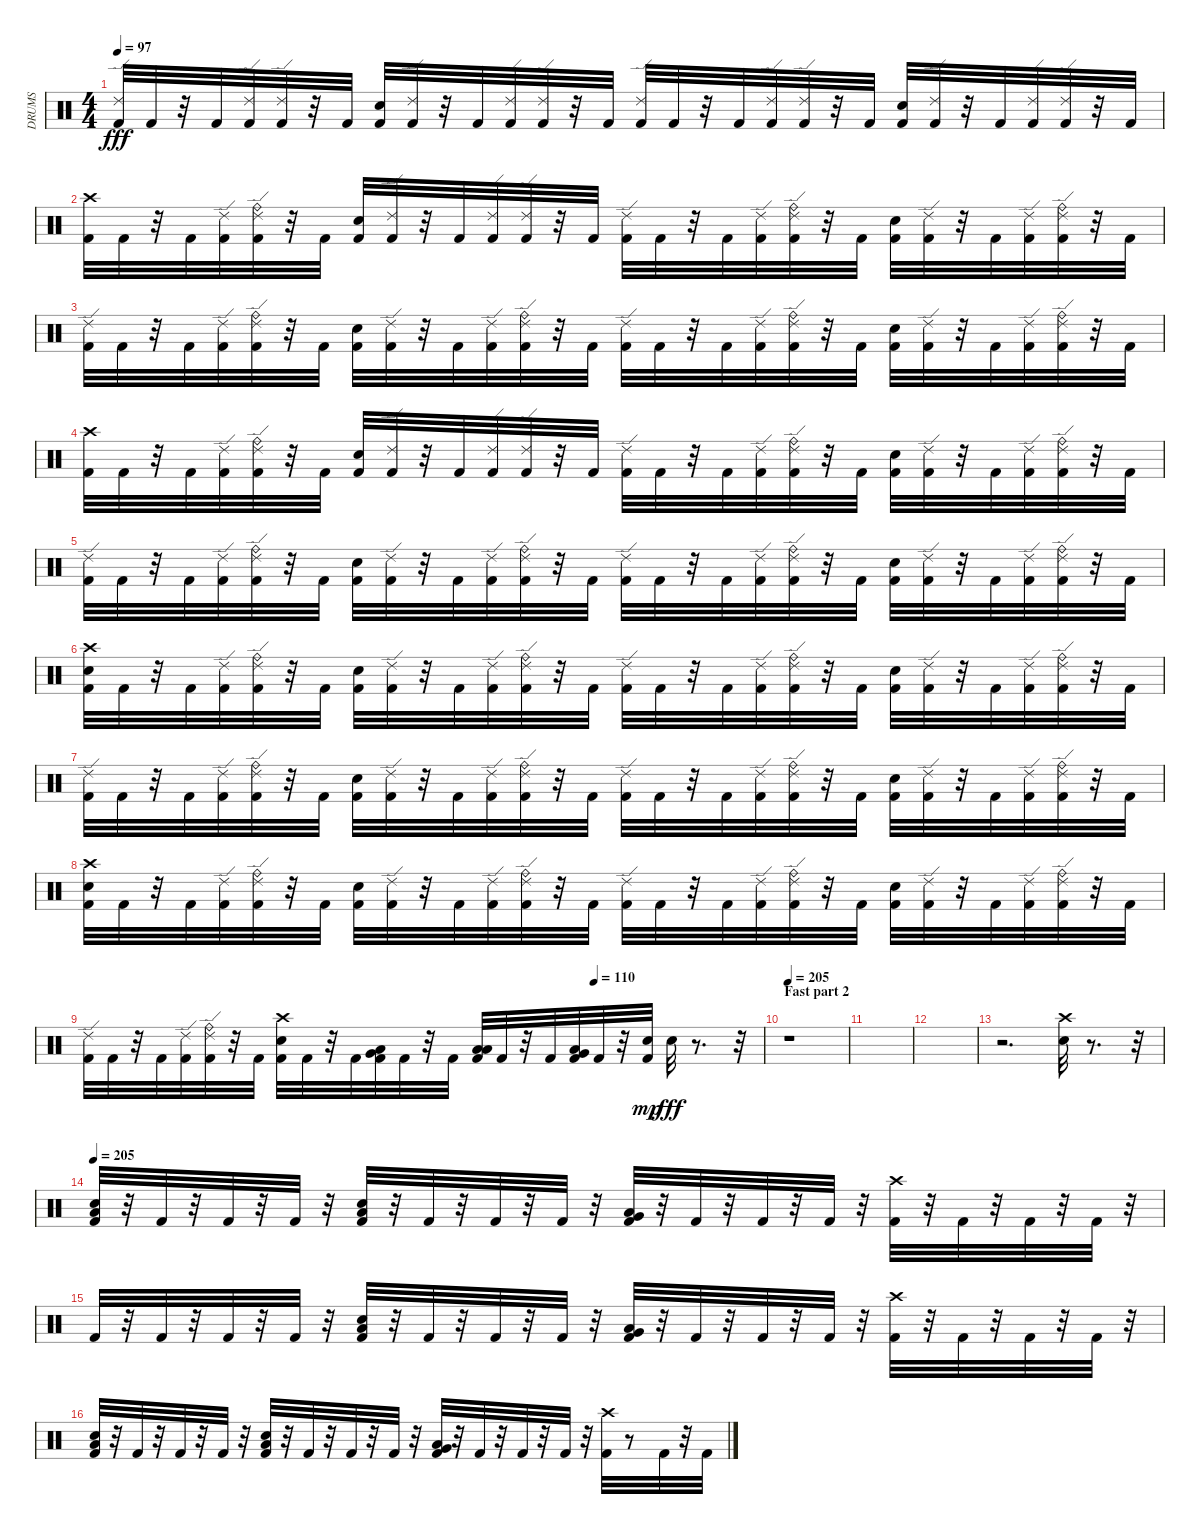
\track ("DRUMS" "DRUMS") {instrument percussion}
\staff {score}
\articulation defaults
\ts (4 4)
\tempo 97
\clef neutral
\ks c
("Ride (edge) 2" "Kick (hit) 2").32{dy fff} "Kick (hit) 2".32 r.32 "Kick (hit) 2".32 ("Ride (edge) 2" "Kick (hit) 2").32 ("Ride (edge) 2" "Kick (hit) 2").32 r.32 "Kick (hit) 2".32 ("Electric Snare (hit)" "Kick (hit) 2").32 ("Ride (edge) 2" "Kick (hit) 2").32 r.32 "Kick (hit) 2".32 ("Ride (edge) 2" "Kick (hit) 2").32 ("Ride (edge) 2" "Kick (hit) 2").32 r.32 "Kick (hit) 2".32 ("Ride (edge) 2" "Kick (hit) 2").32 "Kick (hit) 2".32 r.32 "Kick (hit) 2".32 ("Ride (edge) 2" "Kick (hit) 2").32 ("Ride (edge) 2" "Kick (hit) 2").32 r.32 "Kick (hit) 2".32 ("Electric Snare (hit)" "Kick (hit) 2").32 ("Ride (edge) 2" "Kick (hit) 2").32 r.32 "Kick (hit) 2".32 ("Ride (edge) 2" "Kick (hit) 2").32 ("Ride (edge) 2" "Kick (hit) 2").32 r.32 "Kick (hit) 2".32 |
("Crash high (hit)" "Kick (hit) 2").32 "Kick (hit) 2".32 r.32 "Kick (hit) 2".32 ("Ride (edge) 2" "Kick (hit) 2").32 ("Ride (bell)" "Ride (edge) 2" "Kick (hit) 2").32 r.32 "Kick (hit) 2".32 ("Electric Snare (hit)" "Kick (hit) 2").32 ("Ride (edge) 2" "Kick (hit) 2").32 r.32 "Kick (hit) 2".32 ("Ride (edge) 2" "Kick (hit) 2").32 ("Ride (edge) 2" "Kick (hit) 2").32 r.32 "Kick (hit) 2".32 ("Ride (edge) 2" "Kick (hit) 2").32 "Kick (hit) 2".32 r.32 "Kick (hit) 2".32 ("Ride (edge) 2" "Kick (hit) 2").32 ("Ride (bell)" "Ride (edge) 2" "Kick (hit) 2").32 r.32 "Kick (hit) 2".32 ("Electric Snare (hit)" "Kick (hit) 2").32 ("Ride (edge) 2" "Kick (hit) 2").32 r.32 "Kick (hit) 2".32 ("Ride (edge) 2" "Kick (hit) 2").32 ("Ride (edge) 2" "Ride (bell)" "Kick (hit) 2").32 r.32 "Kick (hit) 2".32 |
("Ride (edge) 2" "Kick (hit) 2").32 "Kick (hit) 2".32 r.32 "Kick (hit) 2".32 ("Ride (edge) 2" "Kick (hit) 2").32 ("Ride (bell)" "Ride (edge) 2" "Kick (hit) 2").32 r.32 "Kick (hit) 2".32 ("Electric Snare (hit)" "Kick (hit) 2").32 ("Ride (edge) 2" "Kick (hit) 2").32 r.32 "Kick (hit) 2".32 ("Ride (edge) 2" "Kick (hit) 2").32 ("Ride (edge) 2" "Ride (bell)" "Kick (hit) 2").32 r.32 "Kick (hit) 2".32 ("Ride (edge) 2" "Kick (hit) 2").32 "Kick (hit) 2".32 r.32 "Kick (hit) 2".32 ("Ride (edge) 2" "Kick (hit) 2").32 ("Ride (bell)" "Ride (edge) 2" "Kick (hit) 2").32 r.32 "Kick (hit) 2".32 ("Electric Snare (hit)" "Kick (hit) 2").32 ("Ride (edge) 2" "Kick (hit) 2").32 r.32 "Kick (hit) 2".32 ("Ride (edge) 2" "Kick (hit) 2").32 ("Ride (edge) 2" "Ride (bell)" "Kick (hit) 2").32 r.32 "Kick (hit) 2".32 |
("Crash high (hit)" "Kick (hit) 2").32 "Kick (hit) 2".32 r.32 "Kick (hit) 2".32 ("Ride (edge) 2" "Kick (hit) 2").32 ("Ride (bell)" "Ride (edge) 2" "Kick (hit) 2").32 r.32 "Kick (hit) 2".32 ("Electric Snare (hit)" "Kick (hit) 2").32 ("Ride (edge) 2" "Kick (hit) 2").32 r.32 "Kick (hit) 2".32 ("Ride (edge) 2" "Kick (hit) 2").32 ("Ride (edge) 2" "Kick (hit) 2").32 r.32 "Kick (hit) 2".32 ("Ride (edge) 2" "Kick (hit) 2").32 "Kick (hit) 2".32 r.32 "Kick (hit) 2".32 ("Ride (edge) 2" "Kick (hit) 2").32 ("Ride (bell)" "Ride (edge) 2" "Kick (hit) 2").32 r.32 "Kick (hit) 2".32 ("Electric Snare (hit)" "Kick (hit) 2").32 ("Ride (edge) 2" "Kick (hit) 2").32 r.32 "Kick (hit) 2".32 ("Ride (edge) 2" "Kick (hit) 2").32 ("Ride (edge) 2" "Ride (bell)" "Kick (hit) 2").32 r.32 "Kick (hit) 2".32 |
("Ride (edge) 2" "Kick (hit) 2").32 "Kick (hit) 2".32 r.32 "Kick (hit) 2".32 ("Ride (edge) 2" "Kick (hit) 2").32 ("Ride (bell)" "Ride (edge) 2" "Kick (hit) 2").32 r.32 "Kick (hit) 2".32 ("Electric Snare (hit)" "Kick (hit) 2").32 ("Ride (edge) 2" "Kick (hit) 2").32 r.32 "Kick (hit) 2".32 ("Ride (edge) 2" "Kick (hit) 2").32 ("Ride (edge) 2" "Ride (bell)" "Kick (hit) 2").32 r.32 "Kick (hit) 2".32 ("Ride (edge) 2" "Kick (hit) 2").32 "Kick (hit) 2".32 r.32 "Kick (hit) 2".32 ("Ride (edge) 2" "Kick (hit) 2").32 ("Ride (bell)" "Ride (edge) 2" "Kick (hit) 2").32 r.32 "Kick (hit) 2".32 ("Electric Snare (hit)" "Kick (hit) 2").32 ("Ride (edge) 2" "Kick (hit) 2").32 r.32 "Kick (hit) 2".32 ("Ride (edge) 2" "Kick (hit) 2").32 ("Ride (edge) 2" "Ride (bell)" "Kick (hit) 2").32 r.32 "Kick (hit) 2".32 |
("Crash high (hit)" "Electric Snare (hit)" "Kick (hit) 2").32 "Kick (hit) 2".32 r.32 "Kick (hit) 2".32 ("Ride (edge) 2" "Kick (hit) 2").32 ("Ride (bell)" "Ride (edge) 2" "Kick (hit) 2").32 r.32 "Kick (hit) 2".32 ("Electric Snare (hit)" "Kick (hit) 2").32 ("Ride (edge) 2" "Kick (hit) 2").32 r.32 "Kick (hit) 2".32 ("Ride (edge) 2" "Kick (hit) 2").32 ("Ride (edge) 2" "Ride (bell)" "Kick (hit) 2").32 r.32 "Kick (hit) 2".32 ("Ride (edge) 2" "Kick (hit) 2").32 "Kick (hit) 2".32 r.32 "Kick (hit) 2".32 ("Ride (edge) 2" "Kick (hit) 2").32 ("Ride (bell)" "Ride (edge) 2" "Kick (hit) 2").32 r.32 "Kick (hit) 2".32 ("Electric Snare (hit)" "Kick (hit) 2").32 ("Ride (edge) 2" "Kick (hit) 2").32 r.32 "Kick (hit) 2".32 ("Ride (edge) 2" "Kick (hit) 2").32 ("Ride (edge) 2" "Ride (bell)" "Kick (hit) 2").32 r.32 "Kick (hit) 2".32 |
("Ride (edge) 2" "Kick (hit) 2").32 "Kick (hit) 2".32 r.32 "Kick (hit) 2".32 ("Ride (edge) 2" "Kick (hit) 2").32 ("Ride (bell)" "Ride (edge) 2" "Kick (hit) 2").32 r.32 "Kick (hit) 2".32 ("Electric Snare (hit)" "Kick (hit) 2").32 ("Ride (edge) 2" "Kick (hit) 2").32 r.32 "Kick (hit) 2".32 ("Ride (edge) 2" "Kick (hit) 2").32 ("Ride (edge) 2" "Ride (bell)" "Kick (hit) 2").32 r.32 "Kick (hit) 2".32 ("Ride (edge) 2" "Kick (hit) 2").32 "Kick (hit) 2".32 r.32 "Kick (hit) 2".32 ("Ride (edge) 2" "Kick (hit) 2").32 ("Ride (bell)" "Ride (edge) 2" "Kick (hit) 2").32 r.32 "Kick (hit) 2".32 ("Electric Snare (hit)" "Kick (hit) 2").32 ("Ride (edge) 2" "Kick (hit) 2").32 r.32 "Kick (hit) 2".32 ("Ride (edge) 2" "Kick (hit) 2").32 ("Ride (edge) 2" "Ride (bell)" "Kick (hit) 2").32 r.32 "Kick (hit) 2".32 |
("Crash high (hit)" "Electric Snare (hit)" "Kick (hit) 2").32 "Kick (hit) 2".32 r.32 "Kick (hit) 2".32 ("Ride (edge) 2" "Kick (hit) 2").32 ("Ride (bell)" "Ride (edge) 2" "Kick (hit) 2").32 r.32 "Kick (hit) 2".32 ("Electric Snare (hit)" "Kick (hit) 2").32 ("Ride (edge) 2" "Kick (hit) 2").32 r.32 "Kick (hit) 2".32 ("Ride (edge) 2" "Kick (hit) 2").32 ("Ride (edge) 2" "Ride (bell)" "Kick (hit) 2").32 r.32 "Kick (hit) 2".32 ("Ride (edge) 2" "Kick (hit) 2").32 "Kick (hit) 2".32 r.32 "Kick (hit) 2".32 ("Ride (edge) 2" "Kick (hit) 2").32 ("Ride (bell)" "Ride (edge) 2" "Kick (hit) 2").32 r.32 "Kick (hit) 2".32 ("Electric Snare (hit)" "Kick (hit) 2").32 ("Ride (edge) 2" "Kick (hit) 2").32 r.32 "Kick (hit) 2".32 ("Ride (edge) 2" "Kick (hit) 2").32 ("Ride (edge) 2" "Ride (bell)" "Kick (hit) 2").32 r.32 "Kick (hit) 2".32 |
\tempo (110 0.75)
("Ride (edge) 2" "Kick (hit) 2").32 "Kick (hit) 2".32 r.32 "Kick (hit) 2".32 ("Ride (edge) 2" "Kick (hit) 2").32 ("Ride (bell)" "Ride (edge) 2" "Kick (hit) 2").32 r.32 "Kick (hit) 2".32 ("Crash high (hit)" "Electric Snare (hit)" "Kick (hit) 2").32 "Kick (hit) 2".32 r.32 "Kick (hit) 2".32 ("Low Tom (hit)" "Very Low Tom (hit)" "Kick (hit) 2").32 "Kick (hit) 2".32 r.32 "Kick (hit) 2".32 ("Low Tom (hit)" "Low Floor Tom (hit)" "Kick (hit) 2").32 "Kick (hit) 2".32 r.32 "Kick (hit) 2".32 ("Very Low Tom (hit)" "Low Floor Tom (hit)" "Kick (hit) 2").32 "Kick (hit) 2".32 r.32 ("Kick (hit) 2" "Electric Snare (hit)").32{dy mp} "Electric Snare (hit)".32{dy fff} r.8{d} r.32 |
\section ("" "Fast part 2")
\tempo 205
r.1 |
|
|
r.2{d} ("Crash high (hit)" "Electric Snare (hit)").32 r.8{d} r.32 |
\tempo 205
("Electric Snare (hit)" "Low Floor Tom (hit)" "Kick (hit) 2").32 r.32 "Kick (hit) 2".32 r.32 "Kick (hit) 2".32 r.32 "Kick (hit) 2".32 r.32 ("Electric Snare (hit)" "Low Floor Tom (hit)" "Kick (hit) 2").32 r.32 "Kick (hit) 2".32 r.32 "Kick (hit) 2".32 r.32 "Kick (hit) 2".32 r.32 ("Very Low Tom (hit)" "Low Floor Tom (hit)" "Kick (hit) 2").32 r.32 "Kick (hit) 2".32 r.32 "Kick (hit) 2".32 r.32 "Kick (hit) 2".32 r.32 ("Crash high (hit)" "Kick (hit) 2").32 r.32 "Kick (hit) 2".32 r.32 "Kick (hit) 2".32 r.32 "Kick (hit) 2".32 r.32 |
"Kick (hit) 2".32 r.32 "Kick (hit) 2".32 r.32 "Kick (hit) 2".32 r.32 "Kick (hit) 2".32 r.32 ("Electric Snare (hit)" "Low Floor Tom (hit)" "Kick (hit) 2").32 r.32 "Kick (hit) 2".32 r.32 "Kick (hit) 2".32 r.32 "Kick (hit) 2".32 r.32 ("Very Low Tom (hit)" "Low Floor Tom (hit)" "Kick (hit) 2").32 r.32 "Kick (hit) 2".32 r.32 "Kick (hit) 2".32 r.32 "Kick (hit) 2".32 r.32 ("Crash high (hit)" "Kick (hit) 2").32 r.32 "Kick (hit) 2".32 r.32 "Kick (hit) 2".32 r.32 "Kick (hit) 2".32 r.32 |
("Electric Snare (hit)" "Low Floor Tom (hit)" "Kick (hit) 2").32 r.32 "Kick (hit) 2".32 r.32 "Kick (hit) 2".32 r.32 "Kick (hit) 2".32 r.32 ("Electric Snare (hit)" "Low Floor Tom (hit)" "Kick (hit) 2").32 r.32 "Kick (hit) 2".32 r.32 "Kick (hit) 2".32 r.32 "Kick (hit) 2".32 r.32 ("Very Low Tom (hit)" "Low Floor Tom (hit)" "Kick (hit) 2").32 r.32 "Kick (hit) 2".32 r.32 "Kick (hit) 2".32 r.32 "Kick (hit) 2".32 r.32 ("Crash high (hit)" "Kick (hit) 2").32 r.8 "Kick (hit) 2".32 r.32 "Kick (hit) 2".32
